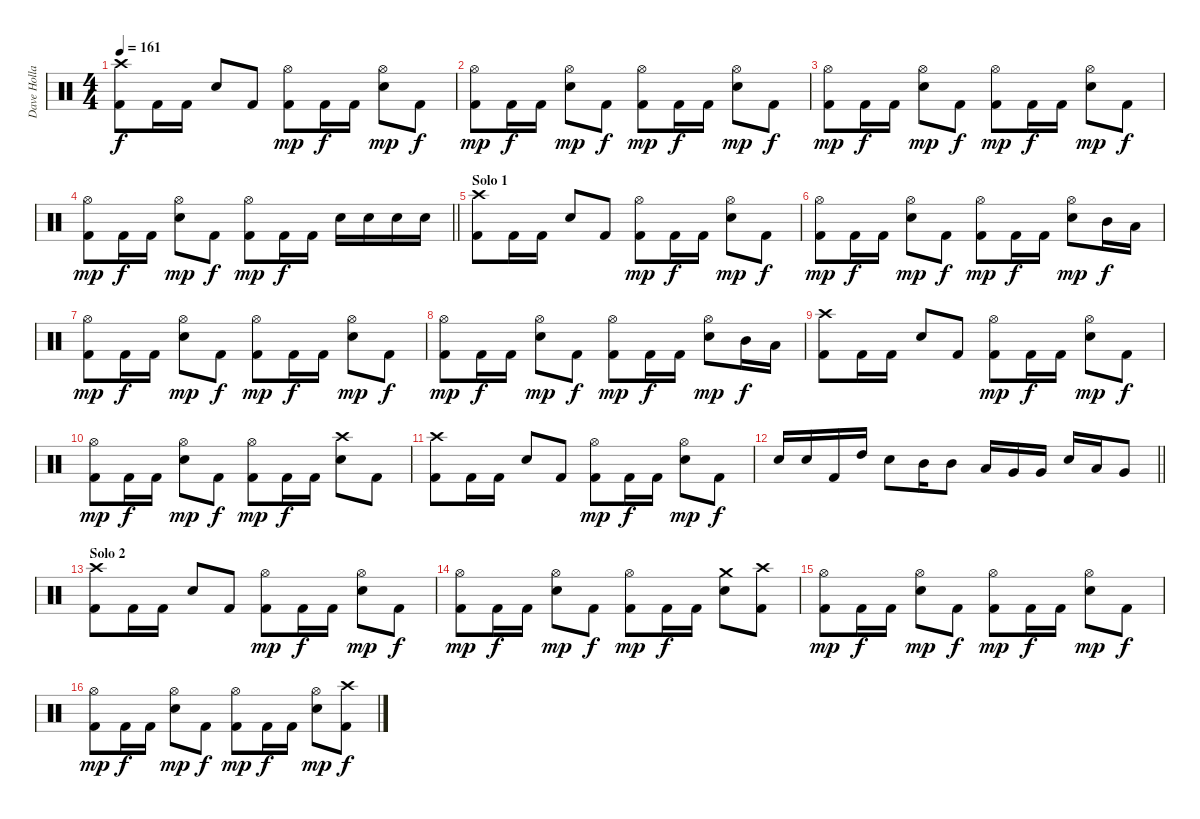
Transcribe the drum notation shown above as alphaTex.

\track ("Dave Holland" "Dave Holla") {instrument percussion}
\staff {score}
\articulation defaults
\ts (4 4)
\tempo 161
\clef neutral
\ks c
("Kick (hit) 2" "Crash high (hit)").8{dy f} "Kick (hit) 2".16 "Kick (hit) 2".16 "Snare (hit) 2".8 "Kick (hit) 2".8 ("Kick (hit) 2" "Hi-Hat (open)").8{dy mp} "Kick (hit) 2".16{dy f} "Kick (hit) 2".16 ("Hi-Hat (open)" "Snare (hit) 2").8{dy mp} "Kick (hit) 2".8{dy f} |
("Kick (hit) 2" "Hi-Hat (open)").8{dy mp} "Kick (hit) 2".16{dy f} "Kick (hit) 2".16 ("Hi-Hat (open)" "Snare (hit) 2").8{dy mp} "Kick (hit) 2".8{dy f} ("Kick (hit) 2" "Hi-Hat (open)").8{dy mp} "Kick (hit) 2".16{dy f} "Kick (hit) 2".16 ("Hi-Hat (open)" "Snare (hit) 2").8{dy mp} "Kick (hit) 2".8{dy f} |
("Kick (hit) 2" "Hi-Hat (open)").8{dy mp} "Kick (hit) 2".16{dy f} "Kick (hit) 2".16 ("Hi-Hat (open)" "Snare (hit) 2").8{dy mp} "Kick (hit) 2".8{dy f} ("Kick (hit) 2" "Hi-Hat (open)").8{dy mp} "Kick (hit) 2".16{dy f} "Kick (hit) 2".16 ("Hi-Hat (open)" "Snare (hit) 2").8{dy mp} "Kick (hit) 2".8{dy f} |
\barLineRight lightlight
("Kick (hit) 2" "Hi-Hat (open)").8{dy mp} "Kick (hit) 2".16{dy f} "Kick (hit) 2".16 ("Hi-Hat (open)" "Snare (hit) 2").8{dy mp} "Kick (hit) 2".8{dy f} ("Kick (hit) 2" "Hi-Hat (open)").8{dy mp} "Kick (hit) 2".16{dy f} "Kick (hit) 2".16 "Snare (hit) 2".16 "Snare (hit) 2".16 "Snare (hit) 2".16 "Snare (hit) 2".16 |
\section ("" "Solo 1")
("Kick (hit) 2" "Crash high (hit)").8 "Kick (hit) 2".16 "Kick (hit) 2".16 "Snare (hit) 2".8 "Kick (hit) 2".8 ("Kick (hit) 2" "Hi-Hat (open)").8{dy mp} "Kick (hit) 2".16{dy f} "Kick (hit) 2".16 ("Hi-Hat (open)" "Snare (hit) 2").8{dy mp} "Kick (hit) 2".8{dy f} |
("Kick (hit) 2" "Hi-Hat (open)").8{dy mp} "Kick (hit) 2".16{dy f} "Kick (hit) 2".16 ("Hi-Hat (open)" "Snare (hit) 2").8{dy mp} "Kick (hit) 2".8{dy f} ("Kick (hit) 2" "Hi-Hat (open)").8{dy mp} "Kick (hit) 2".16{dy f} "Kick (hit) 2".16 ("Hi-Hat (open)" "Snare (hit) 2").8{dy mp} "Mid Tom (hit)".16{dy f} "Low Tom (hit)".16 |
("Kick (hit) 2" "Hi-Hat (open)").8{dy mp} "Kick (hit) 2".16{dy f} "Kick (hit) 2".16 ("Hi-Hat (open)" "Snare (hit) 2").8{dy mp} "Kick (hit) 2".8{dy f} ("Kick (hit) 2" "Hi-Hat (open)").8{dy mp} "Kick (hit) 2".16{dy f} "Kick (hit) 2".16 ("Hi-Hat (open)" "Snare (hit) 2").8{dy mp} "Kick (hit) 2".8{dy f} |
("Kick (hit) 2" "Hi-Hat (open)").8{dy mp} "Kick (hit) 2".16{dy f} "Kick (hit) 2".16 ("Hi-Hat (open)" "Snare (hit) 2").8{dy mp} "Kick (hit) 2".8{dy f} ("Kick (hit) 2" "Hi-Hat (open)").8{dy mp} "Kick (hit) 2".16{dy f} "Kick (hit) 2".16 ("Hi-Hat (open)" "Snare (hit) 2").8{dy mp} "Mid Tom (hit)".16{dy f} "Low Tom (hit)".16 |
("Kick (hit) 2" "Crash high (hit)").8 "Kick (hit) 2".16 "Kick (hit) 2".16 "Snare (hit) 2".8 "Kick (hit) 2".8 ("Kick (hit) 2" "Hi-Hat (open)").8{dy mp} "Kick (hit) 2".16{dy f} "Kick (hit) 2".16 ("Hi-Hat (open)" "Snare (hit) 2").8{dy mp} "Kick (hit) 2".8{dy f} |
("Kick (hit) 2" "Hi-Hat (open)").8{dy mp} "Kick (hit) 2".16{dy f} "Kick (hit) 2".16 ("Hi-Hat (open)" "Snare (hit) 2").8{dy mp} "Kick (hit) 2".8{dy f} ("Kick (hit) 2" "Hi-Hat (open)").8{dy mp} "Kick (hit) 2".16{dy f} "Kick (hit) 2".16 ("Crash high (hit)" "Snare (hit) 2").8 "Kick (hit) 2".8 |
("Kick (hit) 2" "Crash high (hit)").8 "Kick (hit) 2".16 "Kick (hit) 2".16 "Snare (hit) 2".8 "Kick (hit) 2".8 ("Kick (hit) 2" "Hi-Hat (open)").8{dy mp} "Kick (hit) 2".16{dy f} "Kick (hit) 2".16 ("Hi-Hat (open)" "Snare (hit) 2").8{dy mp} "Kick (hit) 2".8{dy f} |
\barLineRight lightlight "Snare (hit) 2".16 "Snare (hit) 2".16 "Kick (hit) 2".16 "High Tom (hit)".16 "Snare (hit) 2".8 "Mid Tom (hit)".16 "Mid Tom (hit)".8 "Low Tom (hit)".16 "Very Low Tom (hit)".16 "Very Low Tom (hit)".16 "Snare (hit) 2".16 "Low Tom (hit)".16 "Very Low Tom (hit)".8
|
\section ("" "Solo 2")
("Kick (hit) 2" "Crash high (hit)").8 "Kick (hit) 2".16 "Kick (hit) 2".16 "Snare (hit) 2".8 "Kick (hit) 2".8 ("Kick (hit) 2" "Hi-Hat (open)").8{dy mp} "Kick (hit) 2".16{dy f} "Kick (hit) 2".16 ("Hi-Hat (open)" "Snare (hit) 2").8{dy mp} "Kick (hit) 2".8{dy f} |
("Kick (hit) 2" "Hi-Hat (open)").8{dy mp} "Kick (hit) 2".16{dy f} "Kick (hit) 2".16 ("Hi-Hat (open)" "Snare (hit) 2").8{dy mp} "Kick (hit) 2".8{dy f} ("Kick (hit) 2" "Hi-Hat (open)").8{dy mp} "Kick (hit) 2".16{dy f} "Kick (hit) 2".16 ("Crash medium (hit)" "Snare (hit) 2").8 ("Kick (hit) 2" "Crash high (hit)").8 |
("Kick (hit) 2" "Hi-Hat (open)").8{dy mp} "Kick (hit) 2".16{dy f} "Kick (hit) 2".16 ("Hi-Hat (open)" "Snare (hit) 2").8{dy mp} "Kick (hit) 2".8{dy f} ("Kick (hit) 2" "Hi-Hat (open)").8{dy mp} "Kick (hit) 2".16{dy f} "Kick (hit) 2".16 ("Hi-Hat (open)" "Snare (hit) 2").8{dy mp} "Kick (hit) 2".8{dy f} |
("Kick (hit) 2" "Hi-Hat (open)").8{dy mp} "Kick (hit) 2".16{dy f} "Kick (hit) 2".16 ("Hi-Hat (open)" "Snare (hit) 2").8{dy mp} "Kick (hit) 2".8{dy f} ("Kick (hit) 2" "Hi-Hat (open)").8{dy mp} "Kick (hit) 2".16{dy f} "Kick (hit) 2".16 ("Hi-Hat (open)" "Snare (hit) 2").8{dy mp} ("Kick (hit) 2" "Crash high (hit)").8{dy f}
